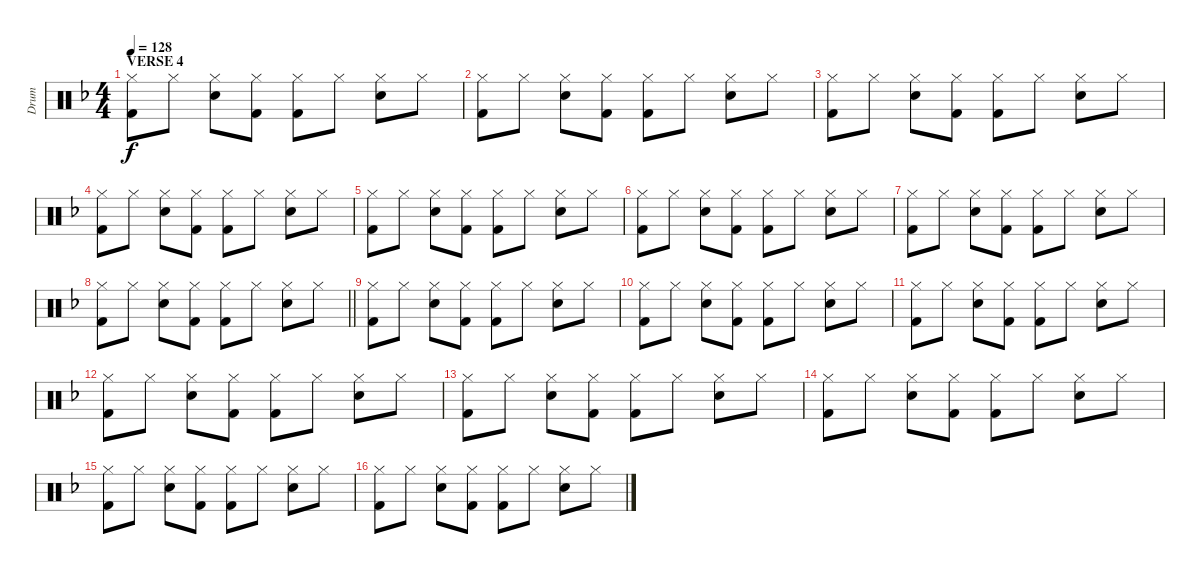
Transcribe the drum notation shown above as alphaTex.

\track ("Drum" "Drum") {instrument percussion}
\staff {score}
\articulation defaults
\ts (4 4)
\section ("" "VERSE 4")
\tempo 128
\clef neutral
\ks f
("Hi-Hat (closed)" "Kick (hit) 2").8{dy f} "Hi-Hat (closed)".8 ("Hi-Hat (closed)" "Electric Snare (hit)").8 ("Hi-Hat (closed)" "Kick (hit) 2").8 ("Hi-Hat (closed)" "Kick (hit) 2").8 "Hi-Hat (closed)".8 ("Hi-Hat (closed)" "Electric Snare (hit)").8 "Hi-Hat (closed)".8 |
("Hi-Hat (closed)" "Kick (hit) 2").8 "Hi-Hat (closed)".8 ("Hi-Hat (closed)" "Electric Snare (hit)").8 ("Hi-Hat (closed)" "Kick (hit) 2").8 ("Hi-Hat (closed)" "Kick (hit) 2").8 "Hi-Hat (closed)".8 ("Hi-Hat (closed)" "Electric Snare (hit)").8 "Hi-Hat (closed)".8 |
("Hi-Hat (closed)" "Kick (hit) 2").8 "Hi-Hat (closed)".8 ("Hi-Hat (closed)" "Electric Snare (hit)").8 ("Hi-Hat (closed)" "Kick (hit) 2").8 ("Hi-Hat (closed)" "Kick (hit) 2").8 "Hi-Hat (closed)".8 ("Hi-Hat (closed)" "Electric Snare (hit)").8 "Hi-Hat (closed)".8 |
("Hi-Hat (closed)" "Kick (hit) 2").8 "Hi-Hat (closed)".8 ("Hi-Hat (closed)" "Electric Snare (hit)").8 ("Hi-Hat (closed)" "Kick (hit) 2").8 ("Hi-Hat (closed)" "Kick (hit) 2").8 "Hi-Hat (closed)".8 ("Hi-Hat (closed)" "Electric Snare (hit)").8 "Hi-Hat (closed)".8 |
("Hi-Hat (closed)" "Kick (hit) 2").8 "Hi-Hat (closed)".8 ("Hi-Hat (closed)" "Electric Snare (hit)").8 ("Hi-Hat (closed)" "Kick (hit) 2").8 ("Hi-Hat (closed)" "Kick (hit) 2").8 "Hi-Hat (closed)".8 ("Hi-Hat (closed)" "Electric Snare (hit)").8 "Hi-Hat (closed)".8 |
("Hi-Hat (closed)" "Kick (hit) 2").8 "Hi-Hat (closed)".8 ("Hi-Hat (closed)" "Electric Snare (hit)").8 ("Hi-Hat (closed)" "Kick (hit) 2").8 ("Hi-Hat (closed)" "Kick (hit) 2").8 "Hi-Hat (closed)".8 ("Hi-Hat (closed)" "Electric Snare (hit)").8 "Hi-Hat (closed)".8 |
("Hi-Hat (closed)" "Kick (hit) 2").8 "Hi-Hat (closed)".8 ("Hi-Hat (closed)" "Electric Snare (hit)").8 ("Hi-Hat (closed)" "Kick (hit) 2").8 ("Hi-Hat (closed)" "Kick (hit) 2").8 "Hi-Hat (closed)".8 ("Hi-Hat (closed)" "Electric Snare (hit)").8 "Hi-Hat (closed)".8 |
\barLineRight lightlight
("Hi-Hat (closed)" "Kick (hit) 2").8 "Hi-Hat (closed)".8 ("Hi-Hat (closed)" "Electric Snare (hit)").8 ("Hi-Hat (closed)" "Kick (hit) 2").8 ("Hi-Hat (closed)" "Kick (hit) 2").8 "Hi-Hat (closed)".8 ("Hi-Hat (closed)" "Electric Snare (hit)").8 "Hi-Hat (closed)".8 |
("Hi-Hat (closed)" "Kick (hit) 2").8 "Hi-Hat (closed)".8 ("Hi-Hat (closed)" "Electric Snare (hit)").8 ("Hi-Hat (closed)" "Kick (hit) 2").8 ("Hi-Hat (closed)" "Kick (hit) 2").8 "Hi-Hat (closed)".8 ("Hi-Hat (closed)" "Electric Snare (hit)").8 "Hi-Hat (closed)".8 |
("Hi-Hat (closed)" "Kick (hit) 2").8 "Hi-Hat (closed)".8 ("Hi-Hat (closed)" "Electric Snare (hit)").8 ("Hi-Hat (closed)" "Kick (hit) 2").8 ("Hi-Hat (closed)" "Kick (hit) 2").8 "Hi-Hat (closed)".8 ("Hi-Hat (closed)" "Electric Snare (hit)").8 "Hi-Hat (closed)".8 |
("Hi-Hat (closed)" "Kick (hit) 2").8 "Hi-Hat (closed)".8 ("Hi-Hat (closed)" "Electric Snare (hit)").8 ("Hi-Hat (closed)" "Kick (hit) 2").8 ("Hi-Hat (closed)" "Kick (hit) 2").8 "Hi-Hat (closed)".8 ("Hi-Hat (closed)" "Electric Snare (hit)").8 "Hi-Hat (closed)".8 |
("Hi-Hat (closed)" "Kick (hit) 2").8 "Hi-Hat (closed)".8 ("Hi-Hat (closed)" "Electric Snare (hit)").8 ("Hi-Hat (closed)" "Kick (hit) 2").8 ("Hi-Hat (closed)" "Kick (hit) 2").8 "Hi-Hat (closed)".8 ("Hi-Hat (closed)" "Electric Snare (hit)").8 "Hi-Hat (closed)".8 |
("Hi-Hat (closed)" "Kick (hit) 2").8 "Hi-Hat (closed)".8 ("Hi-Hat (closed)" "Electric Snare (hit)").8 ("Hi-Hat (closed)" "Kick (hit) 2").8 ("Hi-Hat (closed)" "Kick (hit) 2").8 "Hi-Hat (closed)".8 ("Hi-Hat (closed)" "Electric Snare (hit)").8 "Hi-Hat (closed)".8 |
("Hi-Hat (closed)" "Kick (hit) 2").8 "Hi-Hat (closed)".8 ("Hi-Hat (closed)" "Electric Snare (hit)").8 ("Hi-Hat (closed)" "Kick (hit) 2").8 ("Hi-Hat (closed)" "Kick (hit) 2").8 "Hi-Hat (closed)".8 ("Hi-Hat (closed)" "Electric Snare (hit)").8 "Hi-Hat (closed)".8 |
("Hi-Hat (closed)" "Kick (hit) 2").8 "Hi-Hat (closed)".8 ("Hi-Hat (closed)" "Electric Snare (hit)").8 ("Hi-Hat (closed)" "Kick (hit) 2").8 ("Hi-Hat (closed)" "Kick (hit) 2").8 "Hi-Hat (closed)".8 ("Hi-Hat (closed)" "Electric Snare (hit)").8 "Hi-Hat (closed)".8 |
("Hi-Hat (closed)" "Kick (hit) 2").8 "Hi-Hat (closed)".8 ("Hi-Hat (closed)" "Electric Snare (hit)").8 ("Hi-Hat (closed)" "Kick (hit) 2").8 ("Hi-Hat (closed)" "Kick (hit) 2").8 "Hi-Hat (closed)".8 ("Hi-Hat (closed)" "Electric Snare (hit)").8 "Hi-Hat (closed)".8
